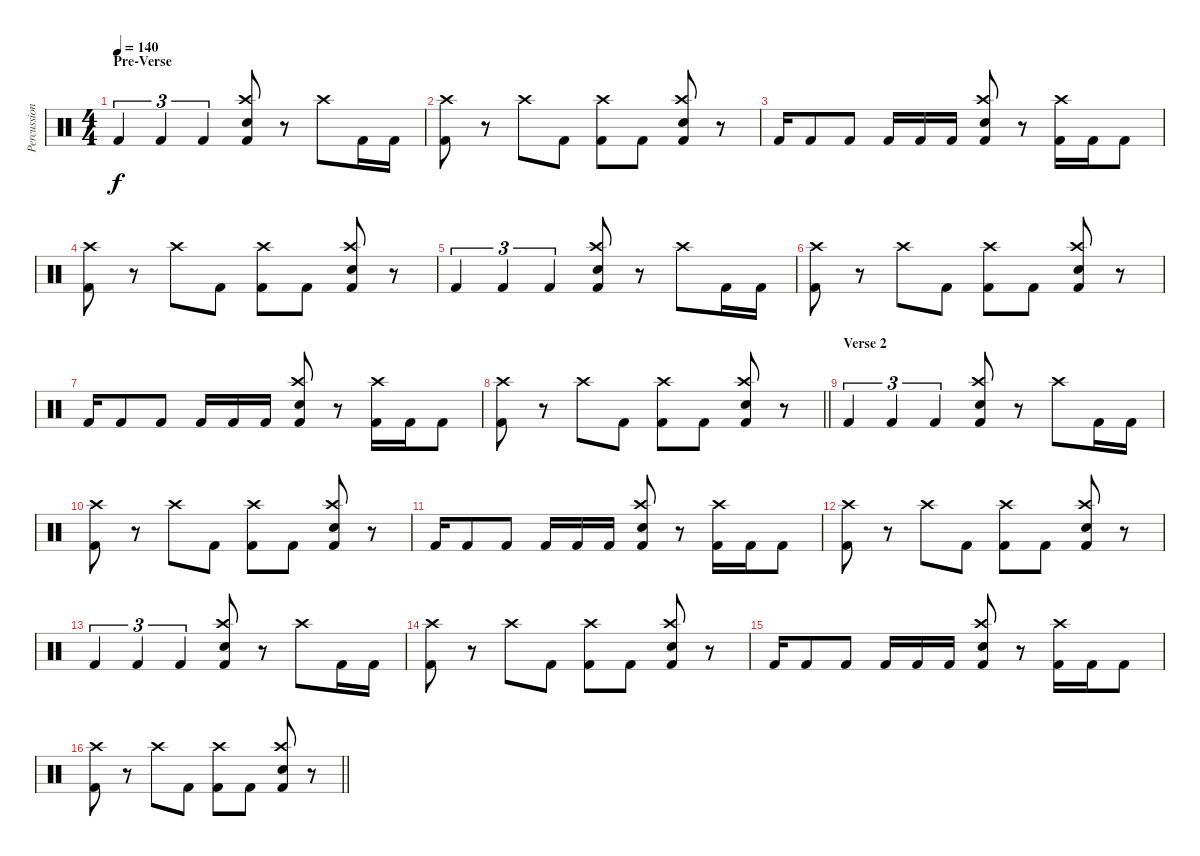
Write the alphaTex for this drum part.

\track ("Percussion" "Percussion") {instrument percussion}
\staff {score}
\articulation defaults
\ts (4 4)
\section ("" "Pre-Verse")
\tempo 140
\clef neutral
\ks c "Kick (hit) 2".4{tu (3 2) dy f} "Kick (hit) 2".4{tu (3 2)} "Kick (hit) 2".4{tu (3 2)}
("Crash high (hit)" "Electric Snare (hit)" "Kick (hit) 2").8 r.8 "Crash high (hit)".8 "Kick (hit) 2".16 "Kick (hit) 2".16 |
("Crash high (hit)" "Kick (hit) 2").8 r.8 "Crash high (hit)".8 "Kick (hit) 2".8 ("Crash high (hit)" "Kick (hit) 2").8 "Kick (hit) 2".8 ("Crash high (hit)" "Electric Snare (hit)" "Kick (hit) 2").8 r.8 |
"Kick (hit) 2".16 "Kick (hit) 2".8 "Kick (hit) 2".8 "Kick (hit) 2".16 "Kick (hit) 2".16 "Kick (hit) 2".16 ("Crash high (hit)" "Electric Snare (hit)" "Kick (hit) 2").8 r.8 ("Crash high (hit)" "Kick (hit) 2").16 "Kick (hit) 2".16 "Kick (hit) 2".8 |
("Crash high (hit)" "Kick (hit) 2").8 r.8 "Crash high (hit)".8 "Kick (hit) 2".8 ("Crash high (hit)" "Kick (hit) 2").8 "Kick (hit) 2".8 ("Crash high (hit)" "Electric Snare (hit)" "Kick (hit) 2").8 r.8 |
"Kick (hit) 2".4{tu (3 2)} "Kick (hit) 2".4{tu (3 2)} "Kick (hit) 2".4{tu (3 2)} ("Crash high (hit)" "Electric Snare (hit)" "Kick (hit) 2").8 r.8 "Crash high (hit)".8 "Kick (hit) 2".16 "Kick (hit) 2".16 |
("Crash high (hit)" "Kick (hit) 2").8 r.8 "Crash high (hit)".8 "Kick (hit) 2".8 ("Crash high (hit)" "Kick (hit) 2").8 "Kick (hit) 2".8 ("Crash high (hit)" "Electric Snare (hit)" "Kick (hit) 2").8 r.8 |
"Kick (hit) 2".16 "Kick (hit) 2".8 "Kick (hit) 2".8 "Kick (hit) 2".16 "Kick (hit) 2".16 "Kick (hit) 2".16 ("Crash high (hit)" "Electric Snare (hit)" "Kick (hit) 2").8 r.8 ("Crash high (hit)" "Kick (hit) 2").16 "Kick (hit) 2".16 "Kick (hit) 2".8 |
\barLineRight lightlight
("Crash high (hit)" "Kick (hit) 2").8 r.8 "Crash high (hit)".8 "Kick (hit) 2".8 ("Crash high (hit)" "Kick (hit) 2").8 "Kick (hit) 2".8 ("Crash high (hit)" "Electric Snare (hit)" "Kick (hit) 2").8 r.8 |
\section ("" "Verse 2")
"Kick (hit) 2".4{tu (3 2)} "Kick (hit) 2".4{tu (3 2)} "Kick (hit) 2".4{tu (3 2)} ("Crash high (hit)" "Electric Snare (hit)" "Kick (hit) 2").8 r.8 "Crash high (hit)".8 "Kick (hit) 2".16 "Kick (hit) 2".16 |
("Crash high (hit)" "Kick (hit) 2").8 r.8 "Crash high (hit)".8 "Kick (hit) 2".8 ("Crash high (hit)" "Kick (hit) 2").8 "Kick (hit) 2".8 ("Crash high (hit)" "Electric Snare (hit)" "Kick (hit) 2").8 r.8 |
"Kick (hit) 2".16 "Kick (hit) 2".8 "Kick (hit) 2".8 "Kick (hit) 2".16 "Kick (hit) 2".16 "Kick (hit) 2".16 ("Crash high (hit)" "Electric Snare (hit)" "Kick (hit) 2").8 r.8 ("Crash high (hit)" "Kick (hit) 2").16 "Kick (hit) 2".16 "Kick (hit) 2".8 |
("Crash high (hit)" "Kick (hit) 2").8 r.8 "Crash high (hit)".8 "Kick (hit) 2".8 ("Crash high (hit)" "Kick (hit) 2").8 "Kick (hit) 2".8 ("Crash high (hit)" "Electric Snare (hit)" "Kick (hit) 2").8 r.8 |
"Kick (hit) 2".4{tu (3 2)} "Kick (hit) 2".4{tu (3 2)} "Kick (hit) 2".4{tu (3 2)} ("Crash high (hit)" "Electric Snare (hit)" "Kick (hit) 2").8 r.8 "Crash high (hit)".8 "Kick (hit) 2".16 "Kick (hit) 2".16 |
("Crash high (hit)" "Kick (hit) 2").8 r.8 "Crash high (hit)".8 "Kick (hit) 2".8 ("Crash high (hit)" "Kick (hit) 2").8 "Kick (hit) 2".8 ("Crash high (hit)" "Electric Snare (hit)" "Kick (hit) 2").8 r.8 |
"Kick (hit) 2".16 "Kick (hit) 2".8 "Kick (hit) 2".8 "Kick (hit) 2".16 "Kick (hit) 2".16 "Kick (hit) 2".16 ("Crash high (hit)" "Electric Snare (hit)" "Kick (hit) 2").8 r.8 ("Crash high (hit)" "Kick (hit) 2").16 "Kick (hit) 2".16 "Kick (hit) 2".8 |
\barLineRight lightlight
("Crash high (hit)" "Kick (hit) 2").8 r.8 "Crash high (hit)".8 "Kick (hit) 2".8 ("Crash high (hit)" "Kick (hit) 2").8 "Kick (hit) 2".8 ("Crash high (hit)" "Electric Snare (hit)" "Kick (hit) 2").8 r.8
